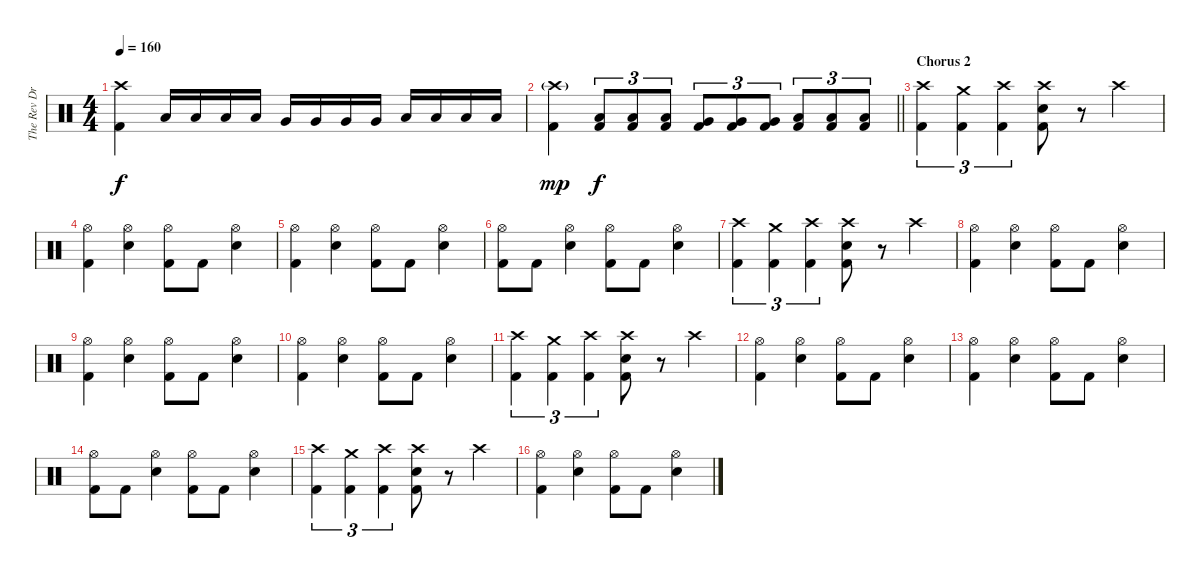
\track ("The Rev Drum" "The Rev Dr") {instrument percussion}
\staff {score}
\articulation defaults
\ts (4 4)
\tempo 160
\clef neutral
\ks c
("Crash high (hit)" "Kick (hit) 2").4{dy f} "Low Tom (hit)".16 "Low Tom (hit)".16 "Low Tom (hit)".16 "Low Tom (hit)".16 "Very Low Tom (hit)".16 "Very Low Tom (hit)".16 "Very Low Tom (hit)".16 "Very Low Tom (hit)".16 "Low Floor Tom (hit)".16 "Low Floor Tom (hit)".16 "Low Floor Tom (hit)".16 "Low Floor Tom (hit)".16 |
\barLineRight lightlight
("Crash high (hit)"{g} "Kick (hit) 2").4{dy mp} ("Low Tom (hit)" "Kick (hit) 2").8{tu (3 2) dy f} ("Low Tom (hit)" "Kick (hit) 2").8{tu (3 2)} ("Low Tom (hit)" "Kick (hit) 2").8{tu (3 2)} ("Very Low Tom (hit)" "Kick (hit) 2").8{tu (3 2)} ("Very Low Tom (hit)" "Kick (hit) 2").8{tu (3 2)} ("Very Low Tom (hit)" "Kick (hit) 2").8{tu (3 2)} ("Low Floor Tom (hit)" "Kick (hit) 2").8{tu (3 2)} ("Low Floor Tom (hit)" "Kick (hit) 2").8{tu (3 2)} ("Low Floor Tom (hit)" "Kick (hit) 2").8{tu (3 2)} |
\section ("" "Chorus 2")
("Crash high (hit)" "Kick (hit) 2").4{tu (3 2)} ("Crash medium (hit)" "Kick (hit) 2").4{tu (3 2)} ("Crash high (hit)" "Kick (hit) 2").4{tu (3 2)} ("Crash high (hit)" "Electric Snare (hit)" "Kick (hit) 2").8 r.8 "Crash high (hit)".4 |
("Hi-Hat (open)" "Kick (hit) 2").4 ("Hi-Hat (open)" "Electric Snare (hit)").4 ("Hi-Hat (open)" "Kick (hit) 2").8 "Kick (hit) 2".8 ("Hi-Hat (open)" "Electric Snare (hit)").4 |
("Hi-Hat (open)" "Kick (hit) 2").4 ("Hi-Hat (open)" "Electric Snare (hit)").4 ("Hi-Hat (open)" "Kick (hit) 2").8 "Kick (hit) 2".8 ("Hi-Hat (open)" "Electric Snare (hit)").4 |
("Hi-Hat (open)" "Kick (hit) 2").8 "Kick (hit) 2".8 ("Hi-Hat (open)" "Electric Snare (hit)").4 ("Hi-Hat (open)" "Kick (hit) 2").8 "Kick (hit) 2".8 ("Hi-Hat (open)" "Electric Snare (hit)").4 |
("Crash high (hit)" "Kick (hit) 2").4{tu (3 2)} ("Crash medium (hit)" "Kick (hit) 2").4{tu (3 2)} ("Crash high (hit)" "Kick (hit) 2").4{tu (3 2)} ("Crash high (hit)" "Electric Snare (hit)" "Kick (hit) 2").8 r.8 "Crash high (hit)".4 |
("Hi-Hat (open)" "Kick (hit) 2").4 ("Hi-Hat (open)" "Electric Snare (hit)").4 ("Hi-Hat (open)" "Kick (hit) 2").8 "Kick (hit) 2".8 ("Hi-Hat (open)" "Electric Snare (hit)").4 |
("Hi-Hat (open)" "Kick (hit) 2").4 ("Hi-Hat (open)" "Electric Snare (hit)").4 ("Hi-Hat (open)" "Kick (hit) 2").8 "Kick (hit) 2".8 ("Hi-Hat (open)" "Electric Snare (hit)").4 |
("Hi-Hat (open)" "Kick (hit) 2").4 ("Hi-Hat (open)" "Electric Snare (hit)").4 ("Hi-Hat (open)" "Kick (hit) 2").8 "Kick (hit) 2".8 ("Hi-Hat (open)" "Electric Snare (hit)").4 |
("Crash high (hit)" "Kick (hit) 2").4{tu (3 2)} ("Crash medium (hit)" "Kick (hit) 2").4{tu (3 2)} ("Crash high (hit)" "Kick (hit) 2").4{tu (3 2)} ("Crash high (hit)" "Electric Snare (hit)" "Kick (hit) 2").8 r.8 "Crash high (hit)".4 |
("Hi-Hat (open)" "Kick (hit) 2").4 ("Hi-Hat (open)" "Electric Snare (hit)").4 ("Hi-Hat (open)" "Kick (hit) 2").8 "Kick (hit) 2".8 ("Hi-Hat (open)" "Electric Snare (hit)").4 |
("Hi-Hat (open)" "Kick (hit) 2").4 ("Hi-Hat (open)" "Electric Snare (hit)").4 ("Hi-Hat (open)" "Kick (hit) 2").8 "Kick (hit) 2".8 ("Hi-Hat (open)" "Electric Snare (hit)").4 |
("Hi-Hat (open)" "Kick (hit) 2").8 "Kick (hit) 2".8 ("Hi-Hat (open)" "Electric Snare (hit)").4 ("Hi-Hat (open)" "Kick (hit) 2").8 "Kick (hit) 2".8 ("Hi-Hat (open)" "Electric Snare (hit)").4 |
("Crash high (hit)" "Kick (hit) 2").4{tu (3 2)} ("Crash medium (hit)" "Kick (hit) 2").4{tu (3 2)} ("Crash high (hit)" "Kick (hit) 2").4{tu (3 2)} ("Crash high (hit)" "Electric Snare (hit)" "Kick (hit) 2").8 r.8 "Crash high (hit)".4 |
("Hi-Hat (open)" "Kick (hit) 2").4 ("Hi-Hat (open)" "Electric Snare (hit)").4 ("Hi-Hat (open)" "Kick (hit) 2").8 "Kick (hit) 2".8 ("Hi-Hat (open)" "Electric Snare (hit)").4
